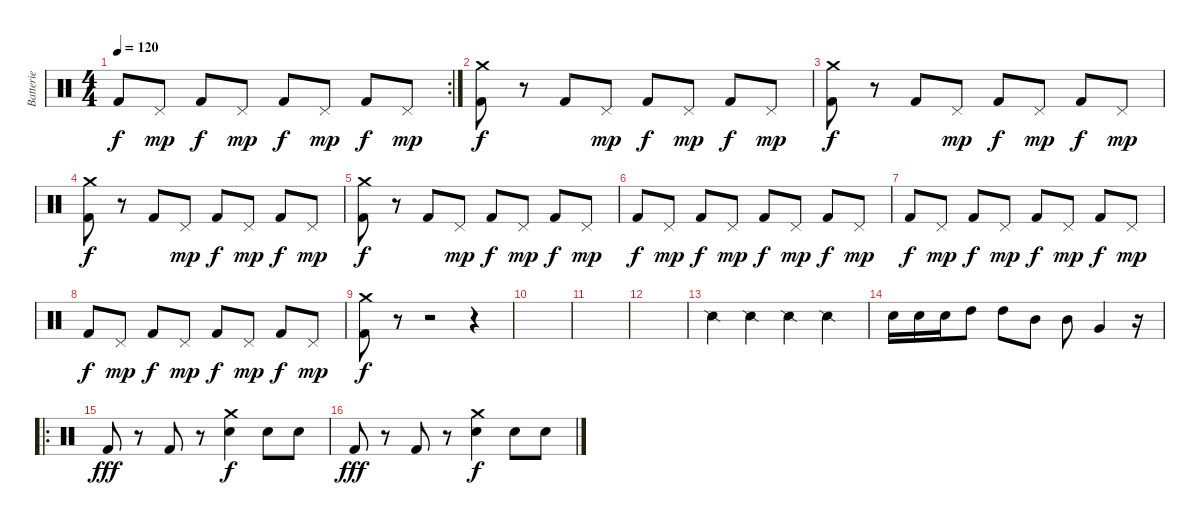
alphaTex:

\track ("Batterie" "Batterie") {instrument percussion}
\staff {score}
\articulation defaults
\rc 2
\ts (4 4)
\tempo 120
\clef neutral
\ks c "Kick (hit) 2".8{dy f} "Pedal Hi-Hat (hit)".8{dy mp} "Kick (hit) 2".8{dy f} "Pedal Hi-Hat (hit)".8{dy mp} "Kick (hit) 2".8{dy f} "Pedal Hi-Hat (hit)".8{dy mp} "Kick (hit) 2".8{dy f} "Pedal Hi-Hat (hit)".8{dy mp}
|
("Kick (hit) 2" "Crash medium (hit)").8{dy f} r.8 "Kick (hit) 2".8 "Pedal Hi-Hat (hit)".8{dy mp} "Kick (hit) 2".8{dy f} "Pedal Hi-Hat (hit)".8{dy mp} "Kick (hit) 2".8{dy f} "Pedal Hi-Hat (hit)".8{dy mp} |
("Kick (hit) 2" "Crash medium (hit)").8{dy f} r.8 "Kick (hit) 2".8 "Pedal Hi-Hat (hit)".8{dy mp} "Kick (hit) 2".8{dy f} "Pedal Hi-Hat (hit)".8{dy mp} "Kick (hit) 2".8{dy f} "Pedal Hi-Hat (hit)".8{dy mp} |
("Kick (hit) 2" "Crash medium (hit)").8{dy f} r.8 "Kick (hit) 2".8 "Pedal Hi-Hat (hit)".8{dy mp} "Kick (hit) 2".8{dy f} "Pedal Hi-Hat (hit)".8{dy mp} "Kick (hit) 2".8{dy f} "Pedal Hi-Hat (hit)".8{dy mp} |
("Kick (hit) 2" "Crash medium (hit)").8{dy f} r.8 "Kick (hit) 2".8 "Pedal Hi-Hat (hit)".8{dy mp} "Kick (hit) 2".8{dy f} "Pedal Hi-Hat (hit)".8{dy mp} "Kick (hit) 2".8{dy f} "Pedal Hi-Hat (hit)".8{dy mp} |
"Kick (hit) 2".8{dy f} "Pedal Hi-Hat (hit)".8{dy mp} "Kick (hit) 2".8{dy f} "Pedal Hi-Hat (hit)".8{dy mp} "Kick (hit) 2".8{dy f} "Pedal Hi-Hat (hit)".8{dy mp} "Kick (hit) 2".8{dy f} "Pedal Hi-Hat (hit)".8{dy mp} |
"Kick (hit) 2".8{dy f} "Pedal Hi-Hat (hit)".8{dy mp} "Kick (hit) 2".8{dy f} "Pedal Hi-Hat (hit)".8{dy mp} "Kick (hit) 2".8{dy f} "Pedal Hi-Hat (hit)".8{dy mp} "Kick (hit) 2".8{dy f} "Pedal Hi-Hat (hit)".8{dy mp} |
"Kick (hit) 2".8{dy f} "Pedal Hi-Hat (hit)".8{dy mp} "Kick (hit) 2".8{dy f} "Pedal Hi-Hat (hit)".8{dy mp} "Kick (hit) 2".8{dy f} "Pedal Hi-Hat (hit)".8{dy mp} "Kick (hit) 2".8{dy f} "Pedal Hi-Hat (hit)".8{dy mp} |
("Kick (hit) 2" "Crash medium (hit)").8{dy f} r.8 r.2 r.4 |
|
|
|
"Snare (side stick) 2".4 "Snare (side stick) 2".4 "Snare (side stick) 2".4 "Snare (side stick) 2".4 |
"Electric Snare (hit)".16 "Electric Snare (hit)".16 "Electric Snare (hit)".16 "High Tom (hit)".8 "High Tom (hit)".8 "Mid Tom (hit)".8 "Mid Tom (hit)".8 "Very Low Tom (hit)".4 r.16 |
\ro "Kick (hit) 2".8{dy fff}
r.8 "Kick (hit) 2".8 r.8 ("Snare (hit) 2" "Crash medium (hit)").4{dy f} "Snare (hit) 2".8 "Snare (hit) 2".8 |
"Kick (hit) 2".8{dy fff} r.8 "Kick (hit) 2".8 r.8 ("Snare (hit) 2" "Crash medium (hit)").4{dy f} "Snare (hit) 2".8 "Snare (hit) 2".8
